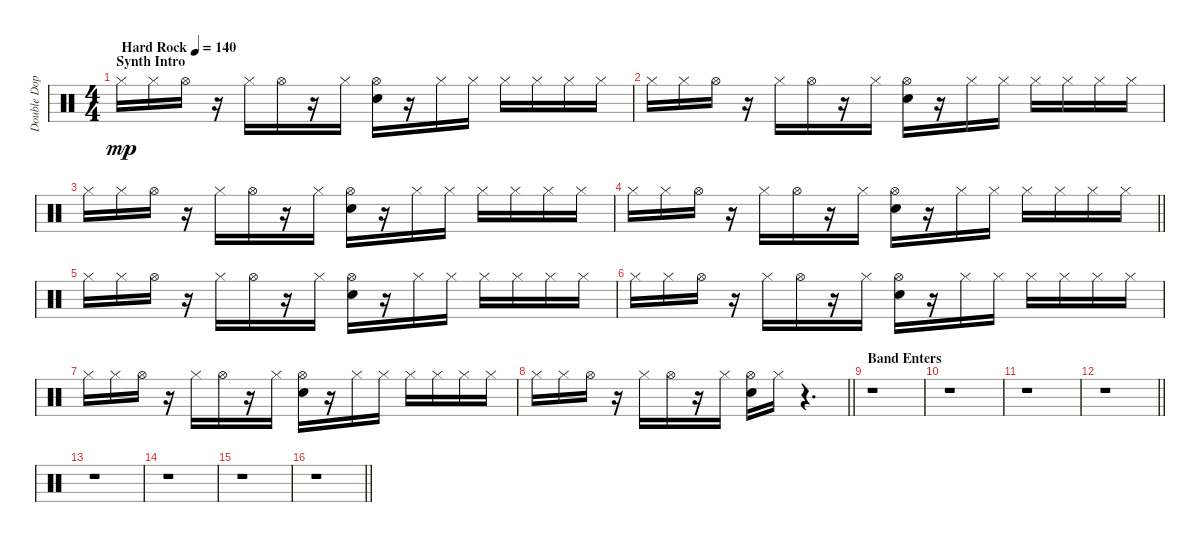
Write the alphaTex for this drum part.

\track ("Double Dope Effects" "Double Dop") {instrument percussion}
\staff {score}
\articulation defaults
\ts (4 4)
\section ("" "Synth Intro")
\tempo (140 "Hard Rock")
\clef neutral
\ks c "Hi-Hat (closed)".16{dy mp volume 8} "Hi-Hat (closed)".16 "Hi-Hat (open)".16
r.16{volume 0} "Hi-Hat (closed)".16{volume 8} "Hi-Hat (open)".16 r.16{volume 0} "Hi-Hat (closed)".16{volume 8} ("Hi-Hat (open)" "Hand Clap (hit)").16 r.16{volume 0} "Hi-Hat (closed)".16{volume 8} "Hi-Hat (closed)".16 "Hi-Hat (closed)".16 "Hi-Hat (closed)".16 "Hi-Hat (closed)".16 "Hi-Hat (closed)".16 |
"Hi-Hat (closed)".16{volume 8} "Hi-Hat (closed)".16 "Hi-Hat (open)".16 r.16{volume 0} "Hi-Hat (closed)".16{volume 8} "Hi-Hat (open)".16 r.16{volume 0} "Hi-Hat (closed)".16{volume 8} ("Hi-Hat (open)" "Hand Clap (hit)").16 r.16{volume 0} "Hi-Hat (closed)".16{volume 8} "Hi-Hat (closed)".16 "Hi-Hat (closed)".16 "Hi-Hat (closed)".16 "Hi-Hat (closed)".16 "Hi-Hat (closed)".16 |
"Hi-Hat (closed)".16{volume 8} "Hi-Hat (closed)".16 "Hi-Hat (open)".16 r.16{volume 0} "Hi-Hat (closed)".16{volume 8} "Hi-Hat (open)".16 r.16{volume 0} "Hi-Hat (closed)".16{volume 8} ("Hi-Hat (open)" "Hand Clap (hit)").16 r.16{volume 0} "Hi-Hat (closed)".16{volume 8} "Hi-Hat (closed)".16 "Hi-Hat (closed)".16 "Hi-Hat (closed)".16 "Hi-Hat (closed)".16 "Hi-Hat (closed)".16 |
\barLineRight lightlight "Hi-Hat (closed)".16{volume 8} "Hi-Hat (closed)".16 "Hi-Hat (open)".16
r.16{volume 0} "Hi-Hat (closed)".16{volume 8} "Hi-Hat (open)".16 r.16{volume 0} "Hi-Hat (closed)".16{volume 8} ("Hi-Hat (open)" "Hand Clap (hit)").16 r.16{volume 0} "Hi-Hat (closed)".16{volume 8} "Hi-Hat (closed)".16 "Hi-Hat (closed)".16 "Hi-Hat (closed)".16 "Hi-Hat (closed)".16 "Hi-Hat (closed)".16 |
"Hi-Hat (closed)".16{volume 8} "Hi-Hat (closed)".16 "Hi-Hat (open)".16 r.16{volume 0} "Hi-Hat (closed)".16{volume 8} "Hi-Hat (open)".16 r.16{volume 0} "Hi-Hat (closed)".16{volume 8} ("Hi-Hat (open)" "Hand Clap (hit)").16 r.16{volume 0} "Hi-Hat (closed)".16{volume 8} "Hi-Hat (closed)".16 "Hi-Hat (closed)".16 "Hi-Hat (closed)".16 "Hi-Hat (closed)".16 "Hi-Hat (closed)".16 |
"Hi-Hat (closed)".16{volume 8} "Hi-Hat (closed)".16 "Hi-Hat (open)".16 r.16{volume 0} "Hi-Hat (closed)".16{volume 8} "Hi-Hat (open)".16 r.16{volume 0} "Hi-Hat (closed)".16{volume 8} ("Hi-Hat (open)" "Hand Clap (hit)").16 r.16{volume 0} "Hi-Hat (closed)".16{volume 8} "Hi-Hat (closed)".16 "Hi-Hat (closed)".16 "Hi-Hat (closed)".16 "Hi-Hat (closed)".16 "Hi-Hat (closed)".16 |
"Hi-Hat (closed)".16{volume 8} "Hi-Hat (closed)".16 "Hi-Hat (open)".16 r.16{volume 0} "Hi-Hat (closed)".16{volume 8} "Hi-Hat (open)".16 r.16{volume 0} "Hi-Hat (closed)".16{volume 8} ("Hi-Hat (open)" "Hand Clap (hit)").16 r.16{volume 0} "Hi-Hat (closed)".16{volume 8} "Hi-Hat (closed)".16 "Hi-Hat (closed)".16 "Hi-Hat (closed)".16 "Hi-Hat (closed)".16 "Hi-Hat (closed)".16 |
\barLineRight lightlight "Hi-Hat (closed)".16{volume 8} "Hi-Hat (closed)".16 "Hi-Hat (open)".16
r.16{volume 0} "Hi-Hat (closed)".16{volume 8} "Hi-Hat (open)".16 r.16{volume 0} "Hi-Hat (closed)".16{volume 8} ("Hi-Hat (open)" "Hand Clap (hit)").16 "Hi-Hat (closed)".16{volume 0} r.4{d volume 10} |
\section ("" "Band Enters")
r.1 |
r.1 |
r.1 |
\barLineRight lightlight
r.1 |
r.1 |
r.1 |
r.1 |
\barLineRight lightlight
r.1
